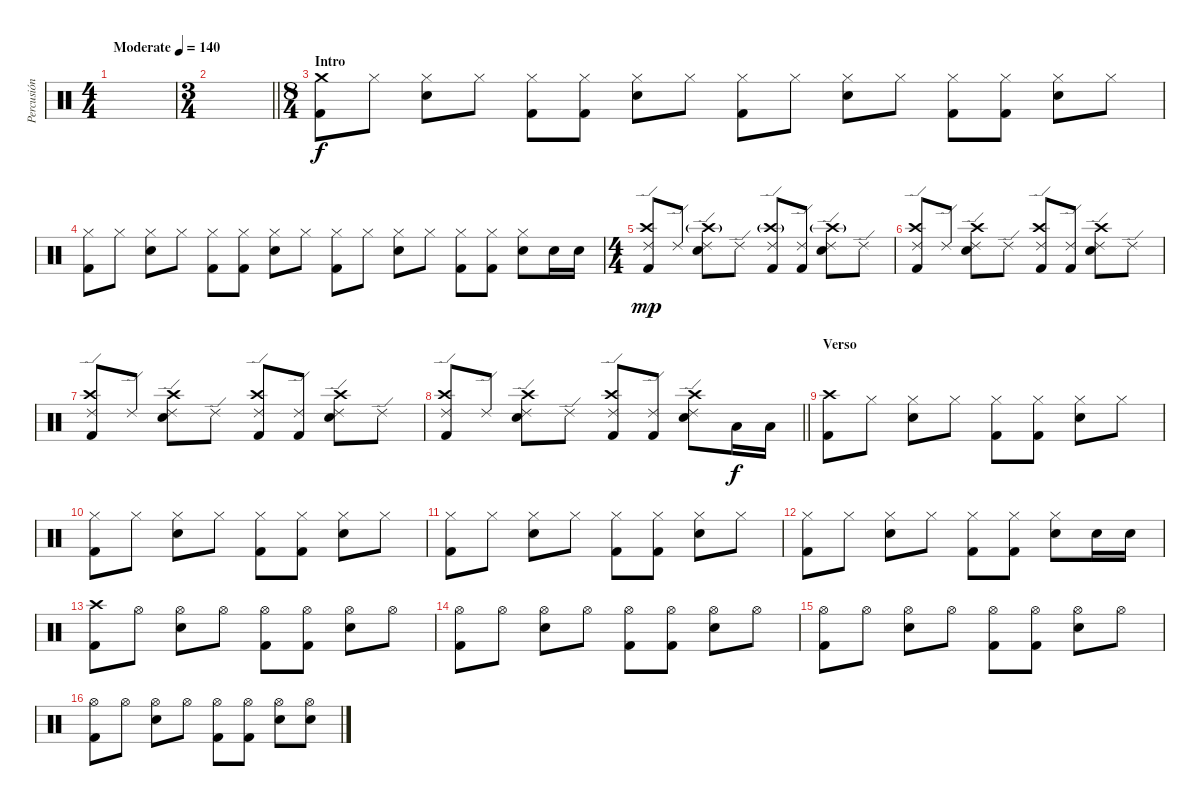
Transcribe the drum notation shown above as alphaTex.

\track ("Percusión" "Percusión") {instrument percussion}
\staff {score}
\articulation defaults
\ts (4 4)
\tempo (140 "Moderate")
\clef neutral
\ks c
|
\ts (3 4)
\barLineRight lightlight
|
\ts (8 4)
\section ("" "Intro")
("Crash medium (hit)" "Kick (hit) 2").8 "Hi-Hat (closed)".8 ("Hi-Hat (closed)" "Electric Snare (hit)").8 "Hi-Hat (closed)".8 ("Hi-Hat (closed)" "Kick (hit) 2").8 ("Hi-Hat (closed)" "Kick (hit) 2").8 ("Hi-Hat (closed)" "Electric Snare (hit)").8 "Hi-Hat (closed)".8 ("Hi-Hat (closed)" "Kick (hit) 2").8 "Hi-Hat (closed)".8 ("Hi-Hat (closed)" "Electric Snare (hit)").8 "Hi-Hat (closed)".8 ("Hi-Hat (closed)" "Kick (hit) 2").8 ("Hi-Hat (closed)" "Kick (hit) 2").8 ("Hi-Hat (closed)" "Electric Snare (hit)").8 "Hi-Hat (closed)".8 |
("Hi-Hat (closed)" "Kick (hit) 2").8 "Hi-Hat (closed)".8 ("Hi-Hat (closed)" "Electric Snare (hit)").8 "Hi-Hat (closed)".8 ("Hi-Hat (closed)" "Kick (hit) 2").8 ("Hi-Hat (closed)" "Kick (hit) 2").8 ("Hi-Hat (closed)" "Electric Snare (hit)").8 "Hi-Hat (closed)".8 ("Hi-Hat (closed)" "Kick (hit) 2").8 "Hi-Hat (closed)".8 ("Hi-Hat (closed)" "Electric Snare (hit)").8 "Hi-Hat (closed)".8 ("Hi-Hat (closed)" "Kick (hit) 2").8 ("Hi-Hat (closed)" "Kick (hit) 2").8 ("Hi-Hat (closed)" "Electric Snare (hit)").8 "Electric Snare (hit)".16 "Electric Snare (hit)".16 |
\ts (4 4)
("Crash high (hit)" "Ride (edge) 2" "Kick (hit) 2").8{dy mp} "Ride (edge) 2".8 ("Crash high (hit)"{g} "Ride (edge) 2" "Electric Snare (hit)").8 "Ride (edge) 2".8 ("Crash high (hit)"{g} "Ride (edge) 2" "Kick (hit) 2").8 ("Ride (edge) 2" "Kick (hit) 2").8 ("Crash high (hit)"{g} "Ride (edge) 2" "Electric Snare (hit)").8 "Ride (edge) 2".8 |
("Crash high (hit)" "Ride (edge) 2" "Kick (hit) 2").8 "Ride (edge) 2".8 ("Crash high (hit)" "Ride (edge) 2" "Electric Snare (hit)").8 "Ride (edge) 2".8 ("Crash high (hit)" "Ride (edge) 2" "Kick (hit) 2").8 ("Ride (edge) 2" "Kick (hit) 2").8 ("Crash high (hit)" "Ride (edge) 2" "Electric Snare (hit)").8 "Ride (edge) 2".8 |
("Crash high (hit)" "Ride (edge) 2" "Kick (hit) 2").8 "Ride (edge) 2".8 ("Crash high (hit)" "Ride (edge) 2" "Electric Snare (hit)").8 "Ride (edge) 2".8 ("Crash high (hit)" "Ride (edge) 2" "Kick (hit) 2").8 ("Ride (edge) 2" "Kick (hit) 2").8 ("Crash high (hit)" "Ride (edge) 2" "Electric Snare (hit)").8 "Ride (edge) 2".8 |
\barLineRight lightlight
("Crash high (hit)" "Ride (edge) 2" "Kick (hit) 2").8 "Ride (edge) 2".8 ("Crash high (hit)" "Ride (edge) 2" "Electric Snare (hit)").8 "Ride (edge) 2".8 ("Crash high (hit)" "Ride (edge) 2" "Kick (hit) 2").8 ("Ride (edge) 2" "Kick (hit) 2").8 ("Crash high (hit)" "Ride (edge) 2" "Electric Snare (hit)").8 "Low Tom (hit)".16{dy f} "Low Tom (hit)".16 |
\section ("" "Verso")
("Crash high (hit)" "Kick (hit) 2").8 "Hi-Hat (closed)".8 ("Hi-Hat (closed)" "Electric Snare (hit)").8 "Hi-Hat (closed)".8 ("Hi-Hat (closed)" "Kick (hit) 2").8 ("Hi-Hat (closed)" "Kick (hit) 2").8 ("Hi-Hat (closed)" "Electric Snare (hit)").8 "Hi-Hat (closed)".8 |
("Hi-Hat (closed)" "Kick (hit) 2").8 "Hi-Hat (closed)".8 ("Hi-Hat (closed)" "Electric Snare (hit)").8 "Hi-Hat (closed)".8 ("Hi-Hat (closed)" "Kick (hit) 2").8 ("Hi-Hat (closed)" "Kick (hit) 2").8 ("Hi-Hat (closed)" "Electric Snare (hit)").8 "Hi-Hat (closed)".8 |
("Hi-Hat (closed)" "Kick (hit) 2").8 "Hi-Hat (closed)".8 ("Hi-Hat (closed)" "Electric Snare (hit)").8 "Hi-Hat (closed)".8 ("Hi-Hat (closed)" "Kick (hit) 2").8 ("Hi-Hat (closed)" "Kick (hit) 2").8 ("Hi-Hat (closed)" "Electric Snare (hit)").8 "Hi-Hat (closed)".8 |
("Hi-Hat (closed)" "Kick (hit) 2").8 "Hi-Hat (closed)".8 ("Hi-Hat (closed)" "Electric Snare (hit)").8 "Hi-Hat (closed)".8 ("Hi-Hat (closed)" "Kick (hit) 2").8 ("Hi-Hat (closed)" "Kick (hit) 2").8 ("Hi-Hat (closed)" "Electric Snare (hit)").8 "Electric Snare (hit)".16 "Electric Snare (hit)".16 |
("Crash high (hit)" "Kick (hit) 2").8 "Hi-Hat (open)".8 ("Hi-Hat (open)" "Electric Snare (hit)").8 "Hi-Hat (open)".8 ("Hi-Hat (open)" "Kick (hit) 2").8 ("Hi-Hat (open)" "Kick (hit) 2").8 ("Hi-Hat (open)" "Electric Snare (hit)").8 "Hi-Hat (open)".8 |
("Hi-Hat (open)" "Kick (hit) 2").8 "Hi-Hat (open)".8 ("Hi-Hat (open)" "Electric Snare (hit)").8 "Hi-Hat (open)".8 ("Hi-Hat (open)" "Kick (hit) 2").8 ("Hi-Hat (open)" "Kick (hit) 2").8 ("Hi-Hat (open)" "Electric Snare (hit)").8 "Hi-Hat (open)".8 |
("Hi-Hat (open)" "Kick (hit) 2").8 "Hi-Hat (open)".8 ("Hi-Hat (open)" "Electric Snare (hit)").8 "Hi-Hat (open)".8 ("Hi-Hat (open)" "Kick (hit) 2").8 ("Hi-Hat (open)" "Kick (hit) 2").8 ("Hi-Hat (open)" "Electric Snare (hit)").8 "Hi-Hat (open)".8 |
("Hi-Hat (open)" "Kick (hit) 2").8 "Hi-Hat (open)".8 ("Hi-Hat (open)" "Electric Snare (hit)").8 "Hi-Hat (open)".8 ("Hi-Hat (open)" "Kick (hit) 2").8 ("Hi-Hat (open)" "Kick (hit) 2").8 ("Hi-Hat (open)" "Electric Snare (hit)").8 ("Hi-Hat (open)" "Electric Snare (hit)").8
